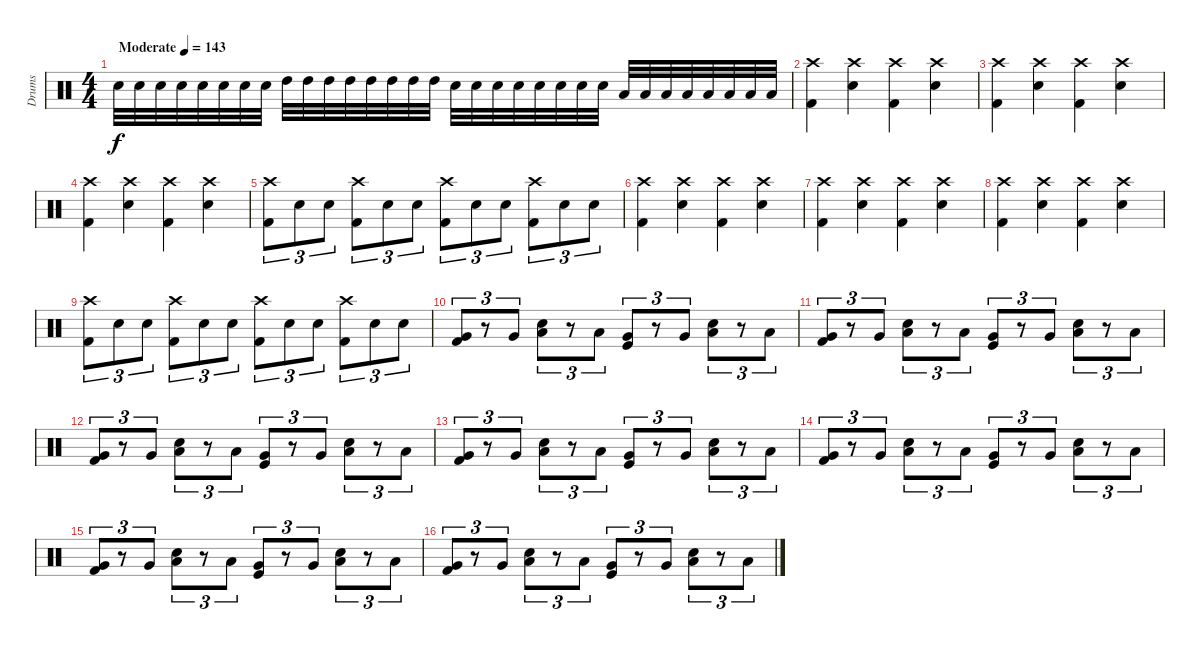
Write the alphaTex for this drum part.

\track ("Drums" "Drums") {instrument percussion}
\staff {score}
\articulation defaults
\ts (4 4)
\tempo (143 "Moderate")
\clef neutral
\ks c "Snare (hit) 2".32{dy f} "Snare (hit) 2".32 "Snare (hit) 2".32 "Snare (hit) 2".32 "Snare (hit) 2".32 "Snare (hit) 2".32 "Snare (hit) 2".32 "Snare (hit) 2".32 "High Tom (hit)".32 "High Tom (hit)".32 "High Tom (hit)".32 "High Tom (hit)".32 "High Tom (hit)".32 "High Tom (hit)".32 "High Tom (hit)".32 "High Tom (hit)".32 "Snare (hit) 2".32 "Snare (hit) 2".32 "Snare (hit) 2".32 "Snare (hit) 2".32 "Snare (hit) 2".32 "Snare (hit) 2".32 "Snare (hit) 2".32 "Snare (hit) 2".32 "Low Tom (hit)".32 "Low Tom (hit)".32 "Low Tom (hit)".32 "Low Tom (hit)".32 "Low Tom (hit)".32 "Low Tom (hit)".32 "Low Tom (hit)".32 "Low Tom (hit)".32
|
("Kick (hit) 2" "Crash high (hit)").4 ("Snare (hit) 2" "Crash high (hit)").4 ("Kick (hit) 2" "Crash high (hit)").4 ("Snare (hit) 2" "Crash high (hit)").4 |
("Kick (hit) 2" "Crash high (hit)").4 ("Snare (hit) 2" "Crash high (hit)").4 ("Kick (hit) 2" "Crash high (hit)").4 ("Snare (hit) 2" "Crash high (hit)").4 |
("Kick (hit) 2" "Crash high (hit)").4 ("Snare (hit) 2" "Crash high (hit)").4 ("Kick (hit) 2" "Crash high (hit)").4 ("Snare (hit) 2" "Crash high (hit)").4 |
("Crash high (hit)" "Kick (hit) 2").8{tu (3 2)} "Snare (hit) 2".8{tu (3 2)} "Snare (hit) 2".8{tu (3 2)} ("Crash high (hit)" "Kick (hit) 2").8{tu (3 2)} "Snare (hit) 2".8{tu (3 2)} "Snare (hit) 2".8{tu (3 2)} ("Crash high (hit)" "Kick (hit) 2").8{tu (3 2)} "Snare (hit) 2".8{tu (3 2)} "Snare (hit) 2".8{tu (3 2)} ("Crash high (hit)" "Kick (hit) 2").8{tu (3 2)} "Snare (hit) 2".8{tu (3 2)} "Snare (hit) 2".8{tu (3 2)} |
("Kick (hit) 2" "Crash high (hit)").4 ("Snare (hit) 2" "Crash high (hit)").4 ("Kick (hit) 2" "Crash high (hit)").4 ("Snare (hit) 2" "Crash high (hit)").4 |
("Kick (hit) 2" "Crash high (hit)").4 ("Snare (hit) 2" "Crash high (hit)").4 ("Kick (hit) 2" "Crash high (hit)").4 ("Snare (hit) 2" "Crash high (hit)").4 |
("Kick (hit) 2" "Crash high (hit)").4 ("Snare (hit) 2" "Crash high (hit)").4 ("Kick (hit) 2" "Crash high (hit)").4 ("Snare (hit) 2" "Crash high (hit)").4 |
("Crash high (hit)" "Kick (hit) 2").8{tu (3 2)} "Snare (hit) 2".8{tu (3 2)} "Snare (hit) 2".8{tu (3 2)} ("Crash high (hit)" "Kick (hit) 2").8{tu (3 2)} "Snare (hit) 2".8{tu (3 2)} "Snare (hit) 2".8{tu (3 2)} ("Crash high (hit)" "Kick (hit) 2").8{tu (3 2)} "Snare (hit) 2".8{tu (3 2)} "Snare (hit) 2".8{tu (3 2)} ("Crash high (hit)" "Kick (hit) 2").8{tu (3 2)} "Snare (hit) 2".8{tu (3 2)} "Snare (hit) 2".8{tu (3 2)} |
("Kick (hit) 2" "Very Low Tom (hit)").8{tu (3 2)} r.8{tu (3 2)} "Very Low Tom (hit)".8{tu (3 2)} ("Snare (hit) 2" "Low Tom (hit)").8{tu (3 2)} r.8{tu (3 2)} "Low Tom (hit)".8{tu (3 2)} ("Kick (hit)" "Very Low Tom (hit)").8{tu (3 2)} r.8{tu (3 2)} "Very Low Tom (hit)".8{tu (3 2)} ("Snare (hit) 2" "Low Tom (hit)").8{tu (3 2)} r.8{tu (3 2)} "Low Tom (hit)".8{tu (3 2)} |
("Kick (hit) 2" "Very Low Tom (hit)").8{tu (3 2)} r.8{tu (3 2)} "Very Low Tom (hit)".8{tu (3 2)} ("Snare (hit) 2" "Low Tom (hit)").8{tu (3 2)} r.8{tu (3 2)} "Low Tom (hit)".8{tu (3 2)} ("Kick (hit)" "Very Low Tom (hit)").8{tu (3 2)} r.8{tu (3 2)} "Very Low Tom (hit)".8{tu (3 2)} ("Snare (hit) 2" "Low Tom (hit)").8{tu (3 2)} r.8{tu (3 2)} "Low Tom (hit)".8{tu (3 2)} |
("Kick (hit) 2" "Very Low Tom (hit)").8{tu (3 2)} r.8{tu (3 2)} "Very Low Tom (hit)".8{tu (3 2)} ("Snare (hit) 2" "Low Tom (hit)").8{tu (3 2)} r.8{tu (3 2)} "Low Tom (hit)".8{tu (3 2)} ("Kick (hit)" "Very Low Tom (hit)").8{tu (3 2)} r.8{tu (3 2)} "Very Low Tom (hit)".8{tu (3 2)} ("Snare (hit) 2" "Low Tom (hit)").8{tu (3 2)} r.8{tu (3 2)} "Low Tom (hit)".8{tu (3 2)} |
("Kick (hit) 2" "Very Low Tom (hit)").8{tu (3 2)} r.8{tu (3 2)} "Very Low Tom (hit)".8{tu (3 2)} ("Snare (hit) 2" "Low Tom (hit)").8{tu (3 2)} r.8{tu (3 2)} "Low Tom (hit)".8{tu (3 2)} ("Kick (hit)" "Very Low Tom (hit)").8{tu (3 2)} r.8{tu (3 2)} "Very Low Tom (hit)".8{tu (3 2)} ("Snare (hit) 2" "Low Tom (hit)").8{tu (3 2)} r.8{tu (3 2)} "Low Tom (hit)".8{tu (3 2)} |
("Kick (hit) 2" "Very Low Tom (hit)").8{tu (3 2)} r.8{tu (3 2)} "Very Low Tom (hit)".8{tu (3 2)} ("Snare (hit) 2" "Low Tom (hit)").8{tu (3 2)} r.8{tu (3 2)} "Low Tom (hit)".8{tu (3 2)} ("Kick (hit)" "Very Low Tom (hit)").8{tu (3 2)} r.8{tu (3 2)} "Very Low Tom (hit)".8{tu (3 2)} ("Snare (hit) 2" "Low Tom (hit)").8{tu (3 2)} r.8{tu (3 2)} "Low Tom (hit)".8{tu (3 2)} |
("Kick (hit) 2" "Very Low Tom (hit)").8{tu (3 2)} r.8{tu (3 2)} "Very Low Tom (hit)".8{tu (3 2)} ("Snare (hit) 2" "Low Tom (hit)").8{tu (3 2)} r.8{tu (3 2)} "Low Tom (hit)".8{tu (3 2)} ("Kick (hit)" "Very Low Tom (hit)").8{tu (3 2)} r.8{tu (3 2)} "Very Low Tom (hit)".8{tu (3 2)} ("Snare (hit) 2" "Low Tom (hit)").8{tu (3 2)} r.8{tu (3 2)} "Low Tom (hit)".8{tu (3 2)} |
("Kick (hit) 2" "Very Low Tom (hit)").8{tu (3 2)} r.8{tu (3 2)} "Very Low Tom (hit)".8{tu (3 2)} ("Snare (hit) 2" "Low Tom (hit)").8{tu (3 2)} r.8{tu (3 2)} "Low Tom (hit)".8{tu (3 2)} ("Kick (hit)" "Very Low Tom (hit)").8{tu (3 2)} r.8{tu (3 2)} "Very Low Tom (hit)".8{tu (3 2)} ("Snare (hit) 2" "Low Tom (hit)").8{tu (3 2)} r.8{tu (3 2)} "Low Tom (hit)".8{tu (3 2)}
